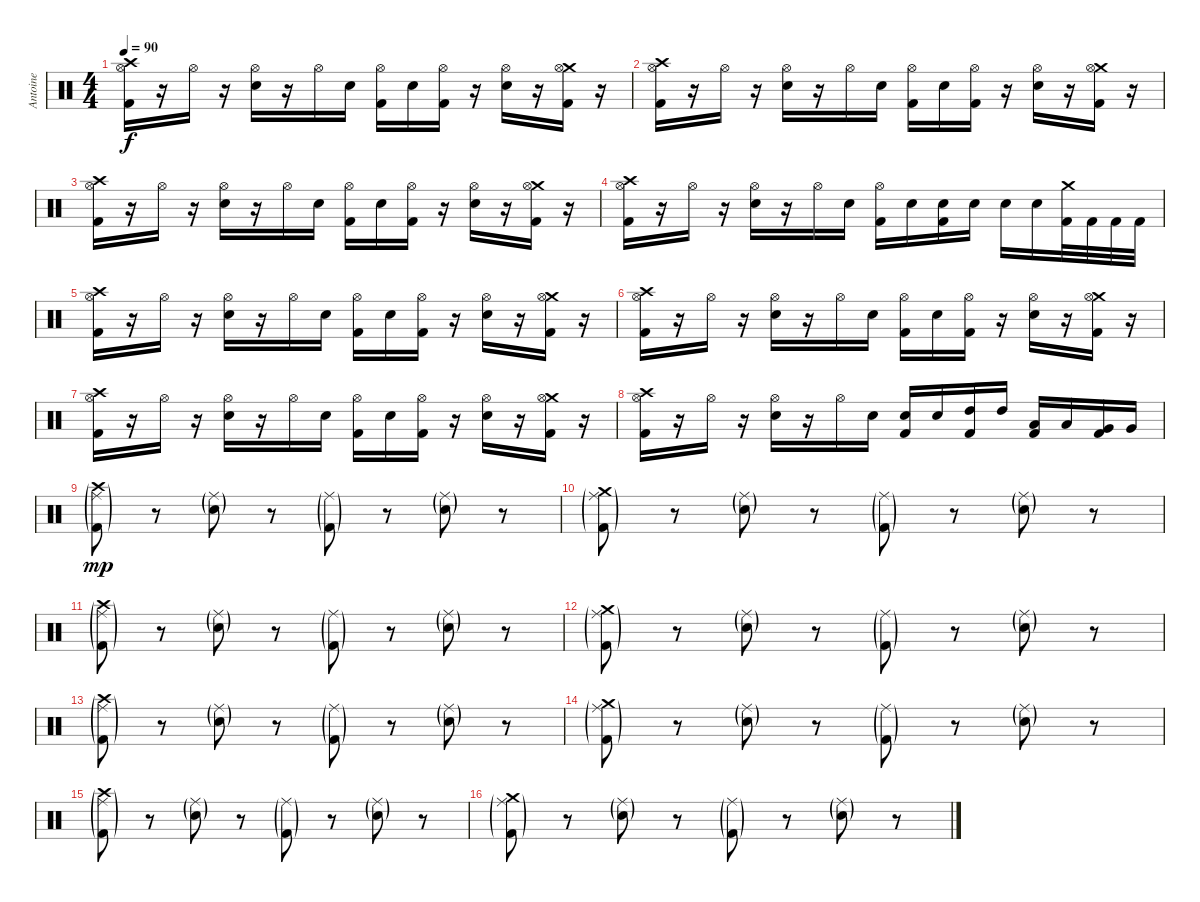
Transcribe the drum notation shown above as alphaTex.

\track ("Antoine" "Antoine") {instrument percussion}
\staff {score}
\articulation defaults
\ts (4 4)
\tempo 90
\clef neutral
\ks c
("Crash high (hit)" "Hi-Hat (open)" "Kick (hit) 2").16{dy f} r.16 "Hi-Hat (open)".16 r.16 ("Hi-Hat (open)" "Electric Snare (hit)").16 r.16 "Hi-Hat (open)".16 "Electric Snare (hit)".16 ("Hi-Hat (open)" "Kick (hit) 2").16 "Electric Snare (hit)".16 ("Hi-Hat (open)" "Kick (hit) 2").16 r.16 ("Hi-Hat (open)" "Electric Snare (hit)").16 r.16 ("Crash medium (hit)" "Hi-Hat (open)" "Kick (hit) 2").16 r.16 |
("Crash high (hit)" "Hi-Hat (open)" "Kick (hit) 2").16 r.16 "Hi-Hat (open)".16 r.16 ("Hi-Hat (open)" "Electric Snare (hit)").16 r.16 "Hi-Hat (open)".16 "Electric Snare (hit)".16 ("Hi-Hat (open)" "Kick (hit) 2").16 "Electric Snare (hit)".16 ("Hi-Hat (open)" "Kick (hit) 2").16 r.16 ("Hi-Hat (open)" "Electric Snare (hit)").16 r.16 ("Crash medium (hit)" "Hi-Hat (open)" "Kick (hit) 2").16 r.16 |
("Crash high (hit)" "Hi-Hat (open)" "Kick (hit) 2").16 r.16 "Hi-Hat (open)".16 r.16 ("Hi-Hat (open)" "Electric Snare (hit)").16 r.16 "Hi-Hat (open)".16 "Electric Snare (hit)".16 ("Hi-Hat (open)" "Kick (hit) 2").16 "Electric Snare (hit)".16 ("Hi-Hat (open)" "Kick (hit) 2").16 r.16 ("Hi-Hat (open)" "Electric Snare (hit)").16 r.16 ("Crash medium (hit)" "Hi-Hat (open)" "Kick (hit) 2").16 r.16 |
("Crash high (hit)" "Hi-Hat (open)" "Kick (hit) 2").16 r.16 "Hi-Hat (open)".16 r.16 ("Hi-Hat (open)" "Electric Snare (hit)").16 r.16 "Hi-Hat (open)".16 "Electric Snare (hit)".16 ("Hi-Hat (open)" "Kick (hit) 2").16 "Electric Snare (hit)".16 ("Electric Snare (hit)" "Kick (hit) 2").16 "Electric Snare (hit)".16 "Electric Snare (hit)".16 "Electric Snare (hit)".16 ("Crash medium (hit)" "Kick (hit) 2").32 "Kick (hit) 2".32 "Kick (hit) 2".32 "Kick (hit) 2".32 |
("Crash high (hit)" "Hi-Hat (open)" "Kick (hit) 2").16 r.16 "Hi-Hat (open)".16 r.16 ("Hi-Hat (open)" "Electric Snare (hit)").16 r.16 "Hi-Hat (open)".16 "Electric Snare (hit)".16 ("Hi-Hat (open)" "Kick (hit) 2").16 "Electric Snare (hit)".16 ("Hi-Hat (open)" "Kick (hit) 2").16 r.16 ("Hi-Hat (open)" "Electric Snare (hit)").16 r.16 ("Crash medium (hit)" "Hi-Hat (open)" "Kick (hit) 2").16 r.16 |
("Crash high (hit)" "Hi-Hat (open)" "Kick (hit) 2").16 r.16 "Hi-Hat (open)".16 r.16 ("Hi-Hat (open)" "Electric Snare (hit)").16 r.16 "Hi-Hat (open)".16 "Electric Snare (hit)".16 ("Hi-Hat (open)" "Kick (hit) 2").16 "Electric Snare (hit)".16 ("Hi-Hat (open)" "Kick (hit) 2").16 r.16 ("Hi-Hat (open)" "Electric Snare (hit)").16 r.16 ("Crash medium (hit)" "Hi-Hat (open)" "Kick (hit) 2").16 r.16 |
("Crash high (hit)" "Hi-Hat (open)" "Kick (hit) 2").16 r.16 "Hi-Hat (open)".16 r.16 ("Hi-Hat (open)" "Electric Snare (hit)").16 r.16 "Hi-Hat (open)".16 "Electric Snare (hit)".16 ("Hi-Hat (open)" "Kick (hit) 2").16 "Electric Snare (hit)".16 ("Hi-Hat (open)" "Kick (hit) 2").16 r.16 ("Hi-Hat (open)" "Electric Snare (hit)").16 r.16 ("Crash medium (hit)" "Hi-Hat (open)" "Kick (hit) 2").16 r.16 |
("Crash high (hit)" "Hi-Hat (open)" "Kick (hit) 2").16 r.16 "Hi-Hat (open)".16 r.16 ("Hi-Hat (open)" "Electric Snare (hit)").16 r.16 "Hi-Hat (open)".16 "Electric Snare (hit)".16 ("Electric Snare (hit)" "Kick (hit) 2").16 "Electric Snare (hit)".16 ("High Tom (hit)" "Kick (hit) 2").16 "High Tom (hit)".16 ("Low Tom (hit)" "Kick (hit) 2").16 "Low Tom (hit)".16 ("Very Low Tom (hit)" "Kick (hit) 2").16 "Very Low Tom (hit)".16 |
("Crash high (hit)"{g} "Ride (middle)"{g} "Kick (hit) 2"{g}).8{dy mp} r.8 ("Ride (middle)"{g} "Electric Snare (hit)"{g}).8 r.8 ("Ride (middle)"{g} "Kick (hit) 2"{g}).8 r.8 ("Ride (middle)"{g} "Electric Snare (hit)"{g}).8 r.8 |
("Crash medium (hit)"{g} "Ride (middle)"{g} "Kick (hit) 2"{g}).8 r.8 ("Ride (middle)"{g} "Electric Snare (hit)"{g}).8 r.8 ("Ride (middle)"{g} "Kick (hit) 2"{g}).8 r.8 ("Ride (middle)"{g} "Electric Snare (hit)"{g}).8 r.8 |
("Crash high (hit)"{g} "Ride (middle)"{g} "Kick (hit) 2"{g}).8 r.8 ("Ride (middle)"{g} "Electric Snare (hit)"{g}).8 r.8 ("Ride (middle)"{g} "Kick (hit) 2"{g}).8 r.8 ("Ride (middle)"{g} "Electric Snare (hit)"{g}).8 r.8 |
("Crash medium (hit)"{g} "Ride (middle)"{g} "Kick (hit) 2"{g}).8 r.8 ("Ride (middle)"{g} "Electric Snare (hit)"{g}).8 r.8 ("Ride (middle)"{g} "Kick (hit) 2"{g}).8 r.8 ("Ride (middle)"{g} "Electric Snare (hit)"{g}).8 r.8 |
("Crash high (hit)"{g} "Ride (middle)"{g} "Kick (hit) 2"{g}).8 r.8 ("Ride (middle)"{g} "Electric Snare (hit)"{g}).8 r.8 ("Ride (middle)"{g} "Kick (hit) 2"{g}).8 r.8 ("Ride (middle)"{g} "Electric Snare (hit)"{g}).8 r.8 |
("Crash medium (hit)"{g} "Ride (middle)"{g} "Kick (hit) 2"{g}).8 r.8 ("Ride (middle)"{g} "Electric Snare (hit)"{g}).8 r.8 ("Ride (middle)"{g} "Kick (hit) 2"{g}).8 r.8 ("Ride (middle)"{g} "Electric Snare (hit)"{g}).8 r.8 |
("Crash high (hit)"{g} "Ride (middle)"{g} "Kick (hit) 2"{g}).8 r.8 ("Ride (middle)"{g} "Electric Snare (hit)"{g}).8 r.8 ("Ride (middle)"{g} "Kick (hit) 2"{g}).8 r.8 ("Ride (middle)"{g} "Electric Snare (hit)"{g}).8 r.8 |
("Crash medium (hit)"{g} "Ride (middle)"{g} "Kick (hit) 2"{g}).8 r.8 ("Ride (middle)"{g} "Electric Snare (hit)"{g}).8 r.8 ("Ride (middle)"{g} "Kick (hit) 2"{g}).8 r.8 ("Ride (middle)"{g} "Electric Snare (hit)"{g}).8 r.8
